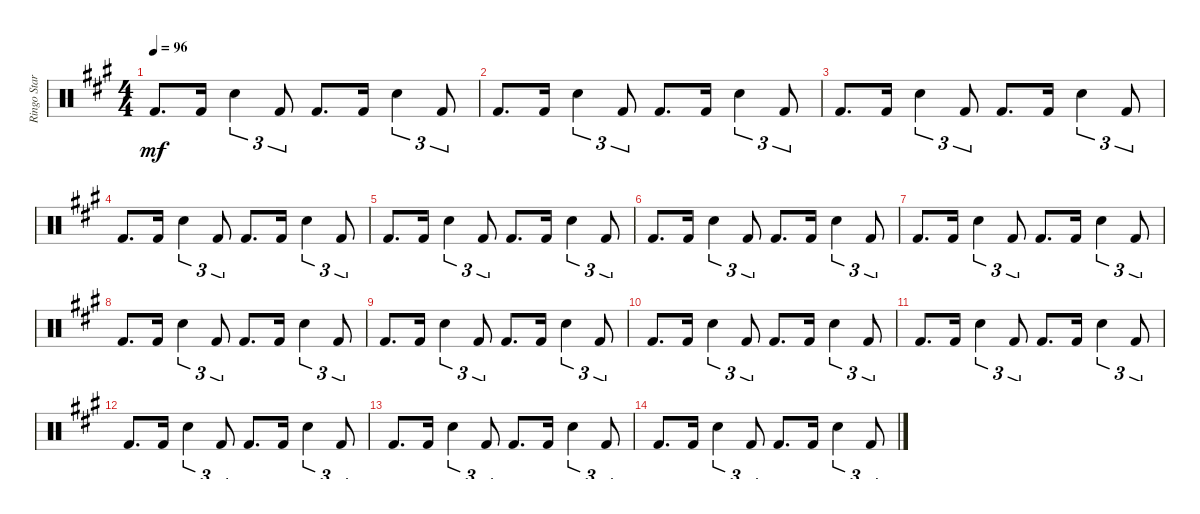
\track ("Ringo Starr - Drums" "Ringo Star") {instrument percussion}
\staff {score}
\articulation defaults
\ts (4 4)
\tempo 96
\clef neutral
\ks a "Kick (hit) 2".8{d dy mf} "Kick (hit) 2".16 "Snare (hit) 2".4{tu (3 2)} "Kick (hit) 2".8{tu (3 2)} "Kick (hit) 2".8{d} "Kick (hit) 2".16 "Snare (hit) 2".4{tu (3 2)} "Kick (hit) 2".8{tu (3 2)}
|
"Kick (hit) 2".8{d} "Kick (hit) 2".16 "Snare (hit) 2".4{tu (3 2)} "Kick (hit) 2".8{tu (3 2)} "Kick (hit) 2".8{d} "Kick (hit) 2".16 "Snare (hit) 2".4{tu (3 2)} "Kick (hit) 2".8{tu (3 2)} |
"Kick (hit) 2".8{d} "Kick (hit) 2".16 "Snare (hit) 2".4{tu (3 2)} "Kick (hit) 2".8{tu (3 2)} "Kick (hit) 2".8{d} "Kick (hit) 2".16 "Snare (hit) 2".4{tu (3 2)} "Kick (hit) 2".8{tu (3 2)} |
"Kick (hit) 2".8{d} "Kick (hit) 2".16 "Snare (hit) 2".4{tu (3 2)} "Kick (hit) 2".8{tu (3 2)} "Kick (hit) 2".8{d} "Kick (hit) 2".16 "Snare (hit) 2".4{tu (3 2)} "Kick (hit) 2".8{tu (3 2)} |
"Kick (hit) 2".8{d} "Kick (hit) 2".16 "Snare (hit) 2".4{tu (3 2)} "Kick (hit) 2".8{tu (3 2)} "Kick (hit) 2".8{d} "Kick (hit) 2".16 "Snare (hit) 2".4{tu (3 2)} "Kick (hit) 2".8{tu (3 2)} |
"Kick (hit) 2".8{d} "Kick (hit) 2".16 "Snare (hit) 2".4{tu (3 2)} "Kick (hit) 2".8{tu (3 2)} "Kick (hit) 2".8{d} "Kick (hit) 2".16 "Snare (hit) 2".4{tu (3 2)} "Kick (hit) 2".8{tu (3 2)} |
"Kick (hit) 2".8{d} "Kick (hit) 2".16 "Snare (hit) 2".4{tu (3 2)} "Kick (hit) 2".8{tu (3 2)} "Kick (hit) 2".8{d} "Kick (hit) 2".16 "Snare (hit) 2".4{tu (3 2)} "Kick (hit) 2".8{tu (3 2)} |
"Kick (hit) 2".8{d} "Kick (hit) 2".16 "Snare (hit) 2".4{tu (3 2)} "Kick (hit) 2".8{tu (3 2)} "Kick (hit) 2".8{d} "Kick (hit) 2".16 "Snare (hit) 2".4{tu (3 2)} "Kick (hit) 2".8{tu (3 2)} |
"Kick (hit) 2".8{d} "Kick (hit) 2".16 "Snare (hit) 2".4{tu (3 2)} "Kick (hit) 2".8{tu (3 2)} "Kick (hit) 2".8{d} "Kick (hit) 2".16 "Snare (hit) 2".4{tu (3 2)} "Kick (hit) 2".8{tu (3 2)} |
"Kick (hit) 2".8{d} "Kick (hit) 2".16 "Snare (hit) 2".4{tu (3 2)} "Kick (hit) 2".8{tu (3 2)} "Kick (hit) 2".8{d} "Kick (hit) 2".16 "Snare (hit) 2".4{tu (3 2)} "Kick (hit) 2".8{tu (3 2)} |
"Kick (hit) 2".8{d} "Kick (hit) 2".16 "Snare (hit) 2".4{tu (3 2)} "Kick (hit) 2".8{tu (3 2)} "Kick (hit) 2".8{d} "Kick (hit) 2".16 "Snare (hit) 2".4{tu (3 2)} "Kick (hit) 2".8{tu (3 2)} |
"Kick (hit) 2".8{d} "Kick (hit) 2".16 "Snare (hit) 2".4{tu (3 2)} "Kick (hit) 2".8{tu (3 2)} "Kick (hit) 2".8{d} "Kick (hit) 2".16 "Snare (hit) 2".4{tu (3 2)} "Kick (hit) 2".8{tu (3 2)} |
"Kick (hit) 2".8{d} "Kick (hit) 2".16 "Snare (hit) 2".4{tu (3 2)} "Kick (hit) 2".8{tu (3 2)} "Kick (hit) 2".8{d} "Kick (hit) 2".16 "Snare (hit) 2".4{tu (3 2)} "Kick (hit) 2".8{tu (3 2)} |
"Kick (hit) 2".8{d} "Kick (hit) 2".16 "Snare (hit) 2".4{tu (3 2)} "Kick (hit) 2".8{tu (3 2)} "Kick (hit) 2".8{d} "Kick (hit) 2".16 "Snare (hit) 2".4{tu (3 2)} "Kick (hit) 2".8{tu (3 2)}
